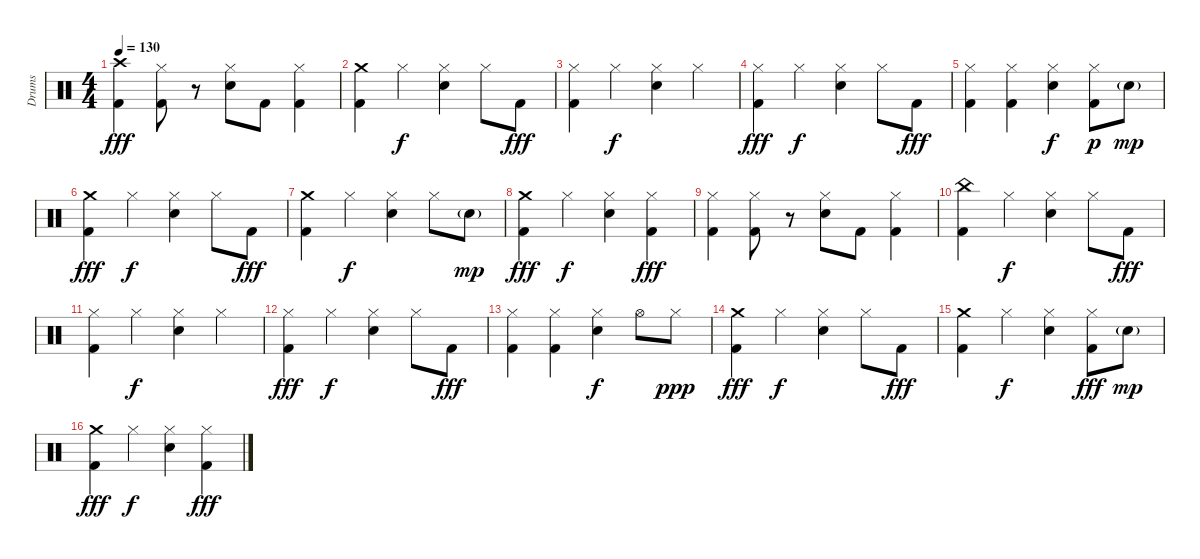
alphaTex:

\track ("Drums" "Drums") {instrument percussion}
\staff {score}
\articulation defaults
\ts (4 4)
\tempo 130
\clef neutral
\ks c
("Crash high (hit)" "Kick (hit) 2").4{dy fff} ("Hi-Hat (closed)" "Kick (hit) 2").8 r.8 ("Hi-Hat (closed)" "Electric Snare (hit)").8 "Kick (hit) 2".8 ("Hi-Hat (closed)" "Kick (hit) 2").4 |
("Crash medium (hit)" "Kick (hit) 2").4 "Hi-Hat (closed)".4{dy f} ("Hi-Hat (closed)" "Electric Snare (hit)").4 "Hi-Hat (closed)".8 "Kick (hit) 2".8{dy fff} |
("Hi-Hat (closed)" "Kick (hit) 2").4 "Hi-Hat (closed)".4{dy f} ("Hi-Hat (closed)" "Electric Snare (hit)").4 "Hi-Hat (closed)".4 |
("Hi-Hat (closed)" "Kick (hit) 2").4{dy fff} "Hi-Hat (closed)".4{dy f} ("Hi-Hat (closed)" "Electric Snare (hit)").4 "Hi-Hat (closed)".8 "Kick (hit) 2".8{dy fff} |
("Hi-Hat (closed)" "Kick (hit) 2").4 ("Hi-Hat (closed)" "Kick (hit) 2").4 ("Hi-Hat (closed)" "Electric Snare (hit)").4{dy f} ("Hi-Hat (closed)" "Kick (hit) 2").8{dy p} "Electric Snare (hit)"{g}.8{dy mp} |
("Crash medium (hit)" "Kick (hit) 2").4{dy fff} "Hi-Hat (closed)".4{dy f} ("Hi-Hat (closed)" "Electric Snare (hit)").4 "Hi-Hat (closed)".8 "Kick (hit) 2".8{dy fff} |
("Crash medium (hit)" "Kick (hit) 2").4 "Hi-Hat (closed)".4{dy f} ("Hi-Hat (closed)" "Electric Snare (hit)").4 "Hi-Hat (closed)".8 "Electric Snare (hit)"{g}.8{dy mp} |
("Crash medium (hit)" "Kick (hit) 2").4{dy fff} "Hi-Hat (closed)".4{dy f} ("Hi-Hat (closed)" "Electric Snare (hit)").4 ("Hi-Hat (closed)" "Kick (hit) 2").4{dy fff} |
("Hi-Hat (closed)" "Kick (hit) 2").4 ("Hi-Hat (closed)" "Kick (hit) 2").8 r.8 ("Hi-Hat (closed)" "Electric Snare (hit)").8 "Kick (hit) 2".8 ("Hi-Hat (closed)" "Kick (hit) 2").4 |
("China (hit)" "Kick (hit) 2").4 "Hi-Hat (closed)".4{dy f} ("Hi-Hat (closed)" "Electric Snare (hit)").4 "Hi-Hat (closed)".8 "Kick (hit) 2".8{dy fff} |
("Hi-Hat (closed)" "Kick (hit) 2").4 "Hi-Hat (closed)".4{dy f} ("Hi-Hat (closed)" "Electric Snare (hit)").4 "Hi-Hat (closed)".4 |
("Hi-Hat (closed)" "Kick (hit) 2").4{dy fff} "Hi-Hat (closed)".4{dy f} ("Hi-Hat (closed)" "Electric Snare (hit)").4 "Hi-Hat (closed)".8 "Kick (hit) 2".8{dy fff} |
("Hi-Hat (closed)" "Kick (hit) 2").4 ("Hi-Hat (closed)" "Kick (hit) 2").4 ("Hi-Hat (closed)" "Electric Snare (hit)").4{dy f} "Hi-Hat (open)".8 "Hi-Hat (closed)".8{dy ppp} |
("Crash medium (hit)" "Kick (hit) 2").4{dy fff} "Hi-Hat (closed)".4{dy f} ("Hi-Hat (closed)" "Electric Snare (hit)").4 "Hi-Hat (closed)".8 "Kick (hit) 2".8{dy fff} |
("Crash medium (hit)" "Kick (hit) 2").4 "Hi-Hat (closed)".4{dy f} ("Hi-Hat (closed)" "Electric Snare (hit)").4 ("Hi-Hat (closed)" "Kick (hit) 2").8{dy fff} "Electric Snare (hit)"{g}.8{dy mp} |
("Crash medium (hit)" "Kick (hit) 2").4{dy fff} "Hi-Hat (closed)".4{dy f} ("Hi-Hat (closed)" "Electric Snare (hit)").4 ("Hi-Hat (closed)" "Kick (hit) 2").4{dy fff}
